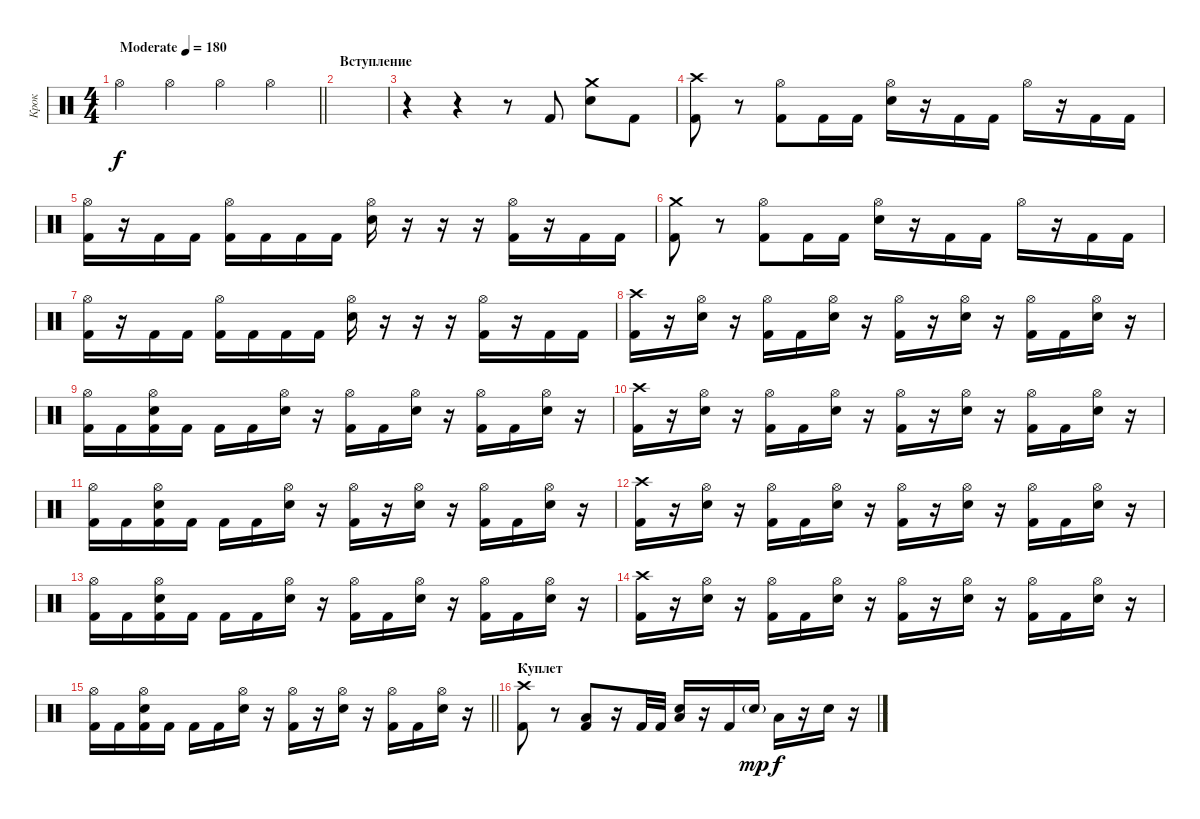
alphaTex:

\track ("Крок" "Крок") {instrument percussion}
\staff {score}
\articulation defaults
\ts (4 4)
\tempo (180 "Moderate")
\clef neutral
\barLineRight lightlight
\ks c "Hi-Hat (open)".4{dy f} "Hi-Hat (open)".4 "Hi-Hat (open)".4 "Hi-Hat (open)".4
|
\section ("" "Вступление")
|
r.4 r.4 r.8 "Kick (hit) 2".8 ("Crash medium (hit)" "Electric Snare (hit)").8 "Kick (hit) 2".8 |
("Crash high (hit)" "Kick (hit) 2").8 r.8 ("Kick (hit) 2" "Hi-Hat (open)").8 "Kick (hit) 2".16 "Kick (hit) 2".16 ("Electric Snare (hit)" "Hi-Hat (open)").16 r.16 "Kick (hit) 2".16 "Kick (hit) 2".16 "Hi-Hat (open)".16 r.16 "Kick (hit) 2".16 "Kick (hit) 2".16 |
("Kick (hit) 2" "Hi-Hat (open)").16 r.16 "Kick (hit) 2".16 "Kick (hit) 2".16 ("Kick (hit) 2" "Hi-Hat (open)").16 "Kick (hit) 2".16 "Kick (hit) 2".16 "Kick (hit) 2".16 ("Electric Snare (hit)" "Hi-Hat (open)").16 r.16 r.16 r.16 ("Kick (hit) 2" "Hi-Hat (open)").16 r.16 "Kick (hit) 2".16 "Kick (hit) 2".16 |
("Kick (hit) 2" "Crash medium (hit)").8 r.8 ("Kick (hit) 2" "Hi-Hat (open)").8 "Kick (hit) 2".16 "Kick (hit) 2".16 ("Electric Snare (hit)" "Hi-Hat (open)").16 r.16 "Kick (hit) 2".16 "Kick (hit) 2".16 "Hi-Hat (open)".16 r.16 "Kick (hit) 2".16 "Kick (hit) 2".16 |
("Kick (hit) 2" "Hi-Hat (open)").16 r.16 "Kick (hit) 2".16 "Kick (hit) 2".16 ("Kick (hit) 2" "Hi-Hat (open)").16 "Kick (hit) 2".16 "Kick (hit) 2".16 "Kick (hit) 2".16 ("Electric Snare (hit)" "Hi-Hat (open)").16 r.16 r.16 r.16 ("Kick (hit) 2" "Hi-Hat (open)").16 r.16 "Kick (hit) 2".16 "Kick (hit) 2".16 |
("Kick (hit) 2" "Crash high (hit)").16 r.16 ("Electric Snare (hit)" "Hi-Hat (open)").16 r.16 ("Kick (hit) 2" "Hi-Hat (open)").16 "Kick (hit) 2".16 ("Electric Snare (hit)" "Hi-Hat (open)").16 r.16 ("Kick (hit) 2" "Hi-Hat (open)").16 r.16 ("Electric Snare (hit)" "Hi-Hat (open)").16 r.16 ("Kick (hit) 2" "Hi-Hat (open)").16 "Kick (hit) 2".16 ("Electric Snare (hit)" "Hi-Hat (open)").16 r.16 |
("Kick (hit) 2" "Hi-Hat (open)").16 "Kick (hit) 2".16 ("Kick (hit) 2" "Electric Snare (hit)" "Hi-Hat (open)").16 "Kick (hit) 2".16 "Kick (hit) 2".16 "Kick (hit) 2".16 ("Electric Snare (hit)" "Hi-Hat (open)").16 r.16 ("Kick (hit) 2" "Hi-Hat (open)").16 "Kick (hit) 2".16 ("Electric Snare (hit)" "Hi-Hat (open)").16 r.16 ("Kick (hit) 2" "Hi-Hat (open)").16 "Kick (hit) 2".16 ("Electric Snare (hit)" "Hi-Hat (open)").16 r.16 |
("Kick (hit) 2" "Crash high (hit)").16 r.16 ("Electric Snare (hit)" "Hi-Hat (open)").16 r.16 ("Kick (hit) 2" "Hi-Hat (open)").16 "Kick (hit) 2".16 ("Electric Snare (hit)" "Hi-Hat (open)").16 r.16 ("Kick (hit) 2" "Hi-Hat (open)").16 r.16 ("Electric Snare (hit)" "Hi-Hat (open)").16 r.16 ("Kick (hit) 2" "Hi-Hat (open)").16 "Kick (hit) 2".16 ("Electric Snare (hit)" "Hi-Hat (open)").16 r.16 |
("Kick (hit) 2" "Hi-Hat (open)").16 "Kick (hit) 2".16 ("Kick (hit) 2" "Electric Snare (hit)" "Hi-Hat (open)").16 "Kick (hit) 2".16 "Kick (hit) 2".16 "Kick (hit) 2".16 ("Electric Snare (hit)" "Hi-Hat (open)").16 r.16 ("Kick (hit) 2" "Hi-Hat (open)").16 r.16 ("Electric Snare (hit)" "Hi-Hat (open)").16 r.16 ("Kick (hit) 2" "Hi-Hat (open)").16 "Kick (hit) 2".16 ("Electric Snare (hit)" "Hi-Hat (open)").16 r.16 |
("Kick (hit) 2" "Crash high (hit)").16 r.16 ("Electric Snare (hit)" "Hi-Hat (open)").16 r.16 ("Kick (hit) 2" "Hi-Hat (open)").16 "Kick (hit) 2".16 ("Electric Snare (hit)" "Hi-Hat (open)").16 r.16 ("Kick (hit) 2" "Hi-Hat (open)").16 r.16 ("Electric Snare (hit)" "Hi-Hat (open)").16 r.16 ("Kick (hit) 2" "Hi-Hat (open)").16 "Kick (hit) 2".16 ("Electric Snare (hit)" "Hi-Hat (open)").16 r.16 |
("Kick (hit) 2" "Hi-Hat (open)").16 "Kick (hit) 2".16 ("Kick (hit) 2" "Electric Snare (hit)" "Hi-Hat (open)").16 "Kick (hit) 2".16 "Kick (hit) 2".16 "Kick (hit) 2".16 ("Electric Snare (hit)" "Hi-Hat (open)").16 r.16 ("Kick (hit) 2" "Hi-Hat (open)").16 "Kick (hit) 2".16 ("Electric Snare (hit)" "Hi-Hat (open)").16 r.16 ("Kick (hit) 2" "Hi-Hat (open)").16 "Kick (hit) 2".16 ("Electric Snare (hit)" "Hi-Hat (open)").16 r.16 |
("Kick (hit) 2" "Crash high (hit)").16 r.16 ("Electric Snare (hit)" "Hi-Hat (open)").16 r.16 ("Kick (hit) 2" "Hi-Hat (open)").16 "Kick (hit) 2".16 ("Electric Snare (hit)" "Hi-Hat (open)").16 r.16 ("Kick (hit) 2" "Hi-Hat (open)").16 r.16 ("Electric Snare (hit)" "Hi-Hat (open)").16 r.16 ("Kick (hit) 2" "Hi-Hat (open)").16 "Kick (hit) 2".16 ("Electric Snare (hit)" "Hi-Hat (open)").16 r.16 |
\barLineRight lightlight
("Kick (hit) 2" "Hi-Hat (open)").16 "Kick (hit) 2".16 ("Kick (hit) 2" "Electric Snare (hit)" "Hi-Hat (open)").16 "Kick (hit) 2".16 "Kick (hit) 2".16 "Kick (hit) 2".16 ("Electric Snare (hit)" "Hi-Hat (open)").16 r.16 ("Kick (hit) 2" "Hi-Hat (open)").16 r.16 ("Electric Snare (hit)" "Hi-Hat (open)").16 r.16 ("Kick (hit) 2" "Hi-Hat (open)").16 "Kick (hit) 2".16 ("Electric Snare (hit)" "Hi-Hat (open)").16 r.16 |
\section ("" "Куплет")
("Crash high (hit)" "Kick (hit) 2").8 r.8 ("Kick (hit) 2" "Low Floor Tom (hit)").8 r.16 "Kick (hit) 2".32 "Kick (hit) 2".32 ("Electric Snare (hit)" "Low Floor Tom (hit)").16 r.16 "Kick (hit) 2".16 "Electric Snare (hit)"{g}.16{dy mp} "Low Floor Tom (hit)".16{dy f} r.16 "Electric Snare (hit)".16 r.16
